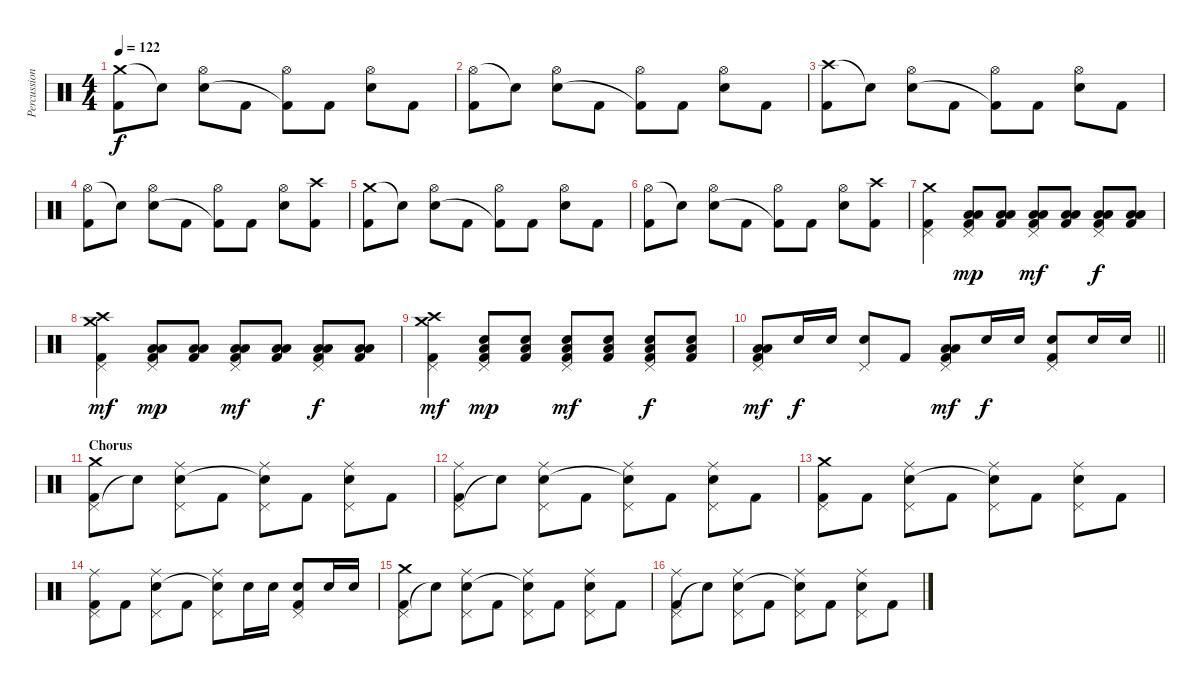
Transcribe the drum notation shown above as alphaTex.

\track ("Percussioni" "Percussion") {instrument percussion}
\staff {score}
\articulation defaults
\ts (4 4)
\tempo 122
\clef neutral
\ks c
("Crash medium (hit)" "Kick (hit) 2").8{dy f} "Snare (hit)"{t}.8 ("Hi-Hat (open)" "Snare (hit) 2").8 "Kick (hit) 2".8 ("Hi-Hat (open)" "Kick (hit) 2"{t}).8 "Kick (hit) 2".8 ("Hi-Hat (open)" "Snare (hit) 2").8 "Kick (hit) 2".8 |
("Hi-Hat (open)" "Kick (hit) 2").8 "Snare (hit)"{t}.8 ("Hi-Hat (open)" "Snare (hit) 2").8 "Kick (hit) 2".8 ("Hi-Hat (open)" "Kick (hit) 2"{t}).8 "Kick (hit) 2".8 ("Hi-Hat (open)" "Snare (hit) 2").8 "Kick (hit) 2".8 |
("Crash high (hit)" "Kick (hit) 2").8 "Snare (hit)"{t}.8 ("Hi-Hat (open)" "Snare (hit) 2").8 "Kick (hit) 2".8 ("Hi-Hat (open)" "Kick (hit) 2"{t}).8 "Kick (hit) 2".8 ("Hi-Hat (open)" "Snare (hit) 2").8 "Kick (hit) 2".8 |
("Hi-Hat (open)" "Kick (hit) 2").8 "Snare (hit)"{t}.8 ("Hi-Hat (open)" "Snare (hit) 2").8 "Kick (hit) 2".8 ("Hi-Hat (open)" "Kick (hit) 2"{t}).8 "Kick (hit) 2".8 ("Hi-Hat (open)" "Snare (hit) 2").8 ("Crash high (hit)" "Kick (hit) 2").8 |
("Crash medium (hit)" "Kick (hit) 2").8 "Snare (hit)"{t}.8 ("Hi-Hat (open)" "Snare (hit) 2").8 "Kick (hit) 2".8 ("Hi-Hat (open)" "Kick (hit) 2"{t}).8 "Kick (hit) 2".8 ("Hi-Hat (open)" "Snare (hit) 2").8 "Kick (hit) 2".8 |
("Hi-Hat (open)" "Kick (hit) 2").8 "Snare (hit)"{t}.8 ("Hi-Hat (open)" "Snare (hit) 2").8 "Kick (hit) 2".8 ("Hi-Hat (open)" "Kick (hit) 2"{t}).8 "Kick (hit) 2".8 ("Hi-Hat (open)" "Snare (hit) 2").8 ("Crash high (hit)" "Kick (hit) 2").8 |
("Pedal Hi-Hat (hit)" "Crash medium (hit)" "Kick (hit) 2").4 ("Pedal Hi-Hat (hit)" "Low Tom (hit)" "Low Floor Tom (hit)" "Kick (hit) 2").8{dy mp} ("Low Tom (hit)" "Low Floor Tom (hit)" "Kick (hit) 2").8 ("Pedal Hi-Hat (hit)" "Low Tom (hit)" "Low Floor Tom (hit)" "Kick (hit) 2").8{dy mf} ("Low Tom (hit)" "Low Floor Tom (hit)" "Kick (hit) 2").8 ("Pedal Hi-Hat (hit)" "Low Tom (hit)" "Low Floor Tom (hit)" "Kick (hit) 2").8{dy f} ("Low Tom (hit)" "Low Floor Tom (hit)" "Kick (hit) 2").8 |
("Pedal Hi-Hat (hit)" "Crash medium (hit)" "Crash high (hit)" "Kick (hit) 2").4{dy mf} ("Pedal Hi-Hat (hit)" "Low Tom (hit)" "Low Floor Tom (hit)" "Kick (hit) 2").8{dy mp} ("Low Tom (hit)" "Low Floor Tom (hit)" "Kick (hit) 2").8 ("Pedal Hi-Hat (hit)" "Low Tom (hit)" "Low Floor Tom (hit)" "Kick (hit) 2").8{dy mf} ("Low Tom (hit)" "Low Floor Tom (hit)" "Kick (hit) 2").8 ("Pedal Hi-Hat (hit)" "Low Tom (hit)" "Low Floor Tom (hit)" "Kick (hit) 2").8{dy f} ("Low Tom (hit)" "Low Floor Tom (hit)" "Kick (hit) 2").8 |
("Pedal Hi-Hat (hit)" "Crash medium (hit)" "Crash high (hit)" "Kick (hit) 2").4{dy mf} ("Pedal Hi-Hat (hit)" "Snare (hit) 2" "Low Floor Tom (hit)" "Kick (hit) 2").8{dy mp} ("Snare (hit) 2" "Low Floor Tom (hit)" "Kick (hit) 2").8 ("Pedal Hi-Hat (hit)" "Snare (hit) 2" "Low Floor Tom (hit)" "Kick (hit) 2").8{dy mf} ("Snare (hit) 2" "Low Floor Tom (hit)" "Kick (hit) 2").8 ("Pedal Hi-Hat (hit)" "Snare (hit) 2" "Low Floor Tom (hit)" "Kick (hit) 2").8{dy f} ("Snare (hit) 2" "Low Floor Tom (hit)" "Kick (hit) 2").8 |
\barLineRight lightlight
("Pedal Hi-Hat (hit)" "Low Tom (hit)" "Low Floor Tom (hit)" "Kick (hit) 2").8{dy mf} "Snare (hit) 2".16{dy f} "Snare (hit) 2".16 ("Pedal Hi-Hat (hit)" "Snare (hit) 2").8 "Kick (hit) 2".8 ("Pedal Hi-Hat (hit)" "Low Tom (hit)" "Low Floor Tom (hit)" "Kick (hit) 2").8{dy mf} "Snare (hit) 2".16{dy f} "Snare (hit) 2".16 ("Pedal Hi-Hat (hit)" "Snare (hit) 2" "Kick (hit) 2").8 "Snare (hit) 2".16 "Snare (hit) 2".16 |
\section ("" "Chorus")
("Pedal Hi-Hat (hit)" "Crash medium (hit)" "Kick (hit) 2").8 "Snare (hit)"{t}.8 ("Pedal Hi-Hat (hit)" "Ride (middle)" "Snare (hit) 2").8 "Kick (hit) 2".8 ("Pedal Hi-Hat (hit)" "Ride (middle)" "Snare (hit)"{t}).8 "Kick (hit) 2".8 ("Pedal Hi-Hat (hit)" "Ride (middle)" "Snare (hit) 2").8 "Kick (hit) 2".8 |
("Pedal Hi-Hat (hit)" "Ride (middle)" "Kick (hit) 2").8 "Snare (hit)"{t}.8 ("Pedal Hi-Hat (hit)" "Ride (middle)" "Snare (hit) 2").8 "Kick (hit) 2".8 ("Pedal Hi-Hat (hit)" "Ride (middle)" "Snare (hit)"{t}).8 "Kick (hit) 2".8 ("Pedal Hi-Hat (hit)" "Ride (middle)" "Snare (hit) 2").8 "Kick (hit) 2".8 |
("Pedal Hi-Hat (hit)" "Crash medium (hit)" "Kick (hit) 2").8 "Kick (hit) 2".8 ("Pedal Hi-Hat (hit)" "Ride (middle)" "Snare (hit) 2").8 "Kick (hit) 2".8 ("Pedal Hi-Hat (hit)" "Ride (middle)" "Snare (hit)"{t}).8 "Kick (hit) 2".8 ("Pedal Hi-Hat (hit)" "Ride (middle)" "Snare (hit) 2").8 "Kick (hit) 2".8 |
("Pedal Hi-Hat (hit)" "Ride (middle)" "Kick (hit) 2").8 "Kick (hit) 2".8 ("Pedal Hi-Hat (hit)" "Ride (middle)" "Snare (hit) 2").8 "Kick (hit) 2".8 ("Pedal Hi-Hat (hit)" "Ride (middle)" "Snare (hit)"{t}).8 "Snare (hit) 2".16 "Snare (hit) 2".16 ("Pedal Hi-Hat (hit)" "Snare (hit) 2" "Kick (hit) 2").8 "Snare (hit) 2".16 "Snare (hit) 2".16 |
("Pedal Hi-Hat (hit)" "Crash medium (hit)" "Kick (hit) 2").8 "Snare (hit)"{t}.8 ("Pedal Hi-Hat (hit)" "Ride (middle)" "Snare (hit) 2").8 "Kick (hit) 2".8 ("Pedal Hi-Hat (hit)" "Ride (middle)" "Snare (hit)"{t}).8 "Kick (hit) 2".8 ("Pedal Hi-Hat (hit)" "Ride (middle)" "Snare (hit) 2").8 "Kick (hit) 2".8 |
("Pedal Hi-Hat (hit)" "Ride (middle)" "Kick (hit) 2").8 "Snare (hit)"{t}.8 ("Pedal Hi-Hat (hit)" "Ride (middle)" "Snare (hit) 2").8 "Kick (hit) 2".8 ("Pedal Hi-Hat (hit)" "Ride (middle)" "Snare (hit)"{t}).8 "Kick (hit) 2".8 ("Pedal Hi-Hat (hit)" "Ride (middle)" "Snare (hit) 2").8 "Kick (hit) 2".8
